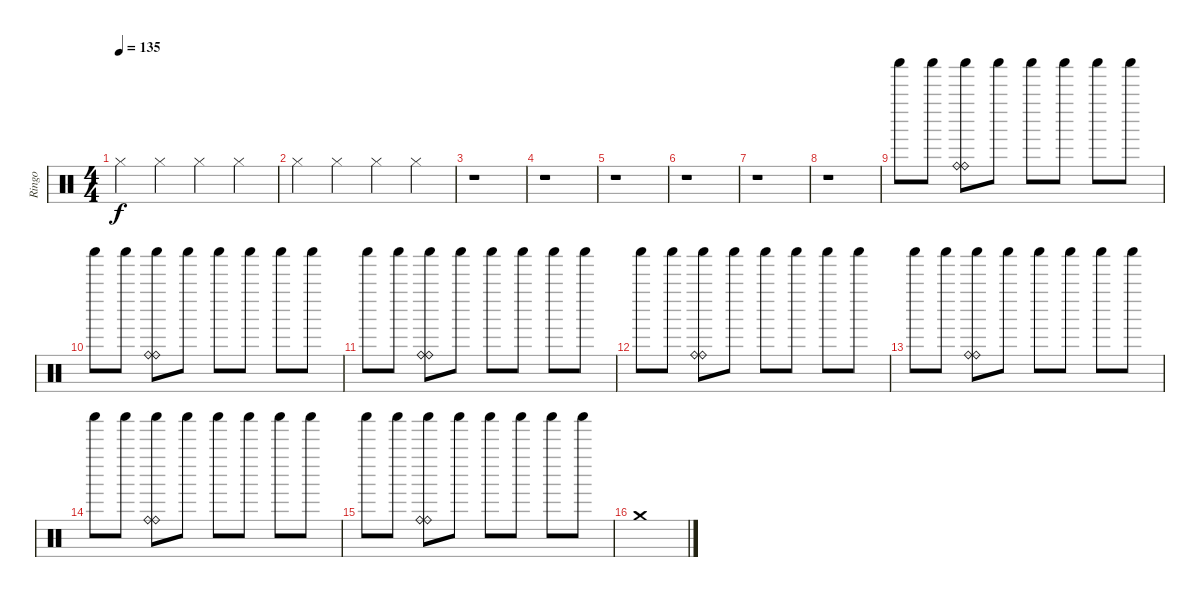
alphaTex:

\track ("Ringo" "Ringo") {instrument percussion}
\staff {score}
\articulation defaults
\ts (4 4)
\tempo 135
\clef neutral
\ks c "Hi-Hat (closed)".4{dy f} "Hi-Hat (closed)".4 "Hi-Hat (closed)".4 "Hi-Hat (closed)".4
|
"Hi-Hat (closed)".4 "Hi-Hat (closed)".4 "Hi-Hat (closed)".4 "Hi-Hat (closed)".4 |
r.1 |
r.1 |
r.1 |
r.1 |
r.1 |
r.1 |
"Shaker (hit)".8{volume 7} "Shaker (hit)".8 ("Ride (bell)" "Shaker (hit)" "Ride (bell)").8{volume 16} "Shaker (hit)".8{volume 7} "Shaker (hit)".8 "Shaker (hit)".8 "Shaker (hit)".8 "Shaker (hit)".8 |
"Shaker (hit)".8{volume 7} "Shaker (hit)".8 ("Ride (bell)" "Shaker (hit)" "Ride (bell)").8{volume 16} "Shaker (hit)".8{volume 7} "Shaker (hit)".8 "Shaker (hit)".8 "Shaker (hit)".8 "Shaker (hit)".8 |
"Shaker (hit)".8{volume 7} "Shaker (hit)".8 ("Ride (bell)" "Shaker (hit)" "Ride (bell)").8{volume 16} "Shaker (hit)".8{volume 7} "Shaker (hit)".8 "Shaker (hit)".8 "Shaker (hit)".8 "Shaker (hit)".8 |
"Shaker (hit)".8{volume 7} "Shaker (hit)".8 ("Ride (bell)" "Shaker (hit)" "Ride (bell)").8{volume 16} "Shaker (hit)".8{volume 7} "Shaker (hit)".8 "Shaker (hit)".8 "Shaker (hit)".8 "Shaker (hit)".8 |
"Shaker (hit)".8{volume 7} "Shaker (hit)".8 ("Ride (bell)" "Shaker (hit)" "Ride (bell)").8{volume 16} "Shaker (hit)".8{volume 7} "Shaker (hit)".8 "Shaker (hit)".8 "Shaker (hit)".8 "Shaker (hit)".8 |
"Shaker (hit)".8{volume 7} "Shaker (hit)".8 ("Ride (bell)" "Shaker (hit)" "Ride (bell)").8{volume 16} "Shaker (hit)".8{volume 7} "Shaker (hit)".8 "Shaker (hit)".8 "Shaker (hit)".8 "Shaker (hit)".8 |
"Shaker (hit)".8{volume 7} "Shaker (hit)".8 ("Ride (bell)" "Shaker (hit)" "Ride (bell)").8{volume 16} "Shaker (hit)".8{volume 7} "Shaker (hit)".8 "Shaker (hit)".8 "Shaker (hit)".8 "Shaker (hit)".8 |
"Crash medium (hit)".1
